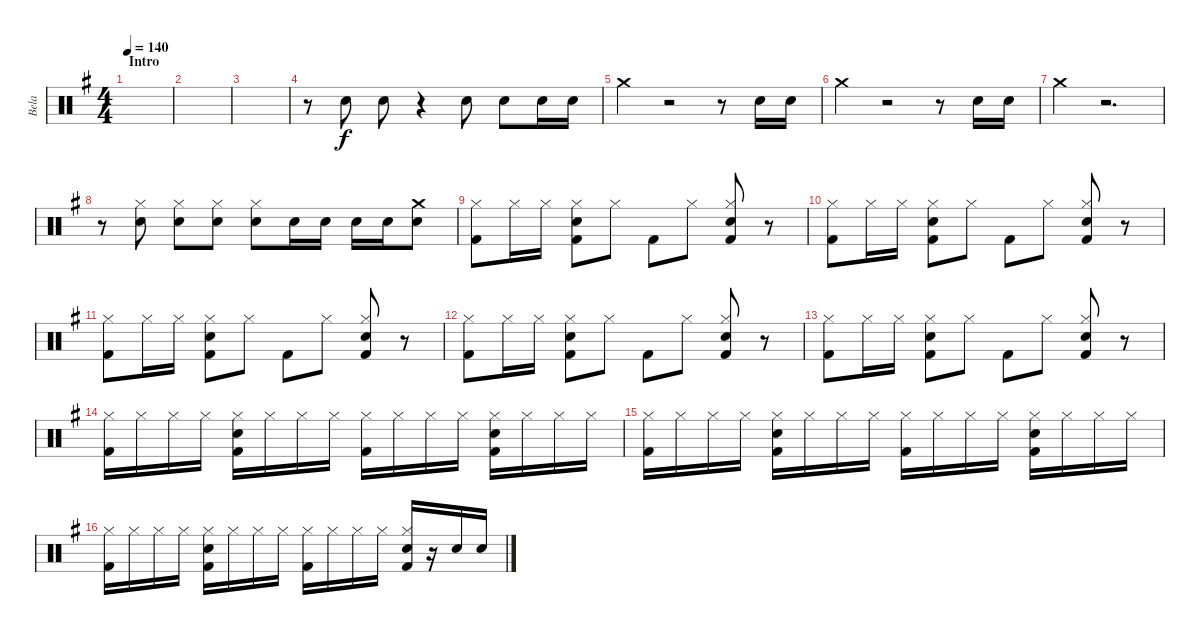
\track ("Bela" "Bela") {instrument percussion}
\staff {score}
\articulation defaults
\ts (4 4)
\section ("" "Intro")
\tempo 140
\clef neutral
\ks g
|
|
|
r.8 "Snare (hit) 2".8 "Snare (hit) 2".8 r.4 "Snare (hit) 2".8 "Snare (hit) 2".8 "Snare (hit) 2".16 "Snare (hit) 2".16 |
"Crash medium (hit)".4 r.2 r.8 "Snare (hit) 2".16 "Snare (hit) 2".16 |
"Crash medium (hit)".4 r.2 r.8 "Snare (hit) 2".16 "Snare (hit) 2".16 |
"Crash medium (hit)".4 r.2{d} |
r.8 ("Hi-Hat (closed)" "Snare (hit) 2").8 ("Hi-Hat (closed)" "Snare (hit) 2").8 ("Hi-Hat (closed)" "Snare (hit) 2").8 ("Hi-Hat (closed)" "Snare (hit) 2").8 "Snare (hit) 2".16 "Snare (hit) 2".16 "Snare (hit) 2".16 "Snare (hit) 2".16 ("Crash medium (hit)" "Snare (hit) 2").8 |
("Hi-Hat (closed)" "Kick (hit) 2").8 "Hi-Hat (closed)".16 "Hi-Hat (closed)".16 ("Hi-Hat (closed)" "Snare (hit) 2" "Kick (hit) 2").8 "Hi-Hat (closed)".8 "Kick (hit) 2".8 "Hi-Hat (closed)".8 ("Hi-Hat (closed)" "Snare (hit) 2" "Kick (hit) 2").8 r.8 |
("Hi-Hat (closed)" "Kick (hit) 2").8 "Hi-Hat (closed)".16 "Hi-Hat (closed)".16 ("Hi-Hat (closed)" "Snare (hit) 2" "Kick (hit) 2").8 "Hi-Hat (closed)".8 "Kick (hit) 2".8 "Hi-Hat (closed)".8 ("Hi-Hat (closed)" "Snare (hit) 2" "Kick (hit) 2").8 r.8 |
("Hi-Hat (closed)" "Kick (hit) 2").8 "Hi-Hat (closed)".16 "Hi-Hat (closed)".16 ("Hi-Hat (closed)" "Snare (hit) 2" "Kick (hit) 2").8 "Hi-Hat (closed)".8 "Kick (hit) 2".8 "Hi-Hat (closed)".8 ("Hi-Hat (closed)" "Snare (hit) 2" "Kick (hit) 2").8 r.8 |
("Hi-Hat (closed)" "Kick (hit) 2").8 "Hi-Hat (closed)".16 "Hi-Hat (closed)".16 ("Hi-Hat (closed)" "Snare (hit) 2" "Kick (hit) 2").8 "Hi-Hat (closed)".8 "Kick (hit) 2".8 "Hi-Hat (closed)".8 ("Hi-Hat (closed)" "Snare (hit) 2" "Kick (hit) 2").8 r.8 |
("Hi-Hat (closed)" "Kick (hit) 2").8 "Hi-Hat (closed)".16 "Hi-Hat (closed)".16 ("Hi-Hat (closed)" "Snare (hit) 2" "Kick (hit) 2").8 "Hi-Hat (closed)".8 "Kick (hit) 2".8 "Hi-Hat (closed)".8 ("Hi-Hat (closed)" "Snare (hit) 2" "Kick (hit) 2").8 r.8 |
("Hi-Hat (closed)" "Kick (hit) 2").16 "Hi-Hat (closed)".16 "Hi-Hat (closed)".16 "Hi-Hat (closed)".16 ("Hi-Hat (closed)" "Snare (hit) 2" "Kick (hit) 2").16 "Hi-Hat (closed)".16 "Hi-Hat (closed)".16 "Hi-Hat (closed)".16 ("Hi-Hat (closed)" "Kick (hit) 2").16 "Hi-Hat (closed)".16 "Hi-Hat (closed)".16 "Hi-Hat (closed)".16 ("Hi-Hat (closed)" "Snare (hit) 2" "Kick (hit) 2").16 "Hi-Hat (closed)".16 "Hi-Hat (closed)".16 "Hi-Hat (closed)".16 |
("Hi-Hat (closed)" "Kick (hit) 2").16 "Hi-Hat (closed)".16 "Hi-Hat (closed)".16 "Hi-Hat (closed)".16 ("Hi-Hat (closed)" "Snare (hit) 2" "Kick (hit) 2").16 "Hi-Hat (closed)".16 "Hi-Hat (closed)".16 "Hi-Hat (closed)".16 ("Hi-Hat (closed)" "Kick (hit) 2").16 "Hi-Hat (closed)".16 "Hi-Hat (closed)".16 "Hi-Hat (closed)".16 ("Hi-Hat (closed)" "Snare (hit) 2" "Kick (hit) 2").16 "Hi-Hat (closed)".16 "Hi-Hat (closed)".16 "Hi-Hat (closed)".16 |
("Hi-Hat (closed)" "Kick (hit) 2").16 "Hi-Hat (closed)".16 "Hi-Hat (closed)".16 "Hi-Hat (closed)".16 ("Hi-Hat (closed)" "Snare (hit) 2" "Kick (hit) 2").16 "Hi-Hat (closed)".16 "Hi-Hat (closed)".16 "Hi-Hat (closed)".16 ("Hi-Hat (closed)" "Kick (hit) 2").16 "Hi-Hat (closed)".16 "Hi-Hat (closed)".16 "Hi-Hat (closed)".16 ("Hi-Hat (closed)" "Snare (hit) 2" "Kick (hit) 2").16 r.16 "Snare (hit) 2".16 "Snare (hit) 2".16
